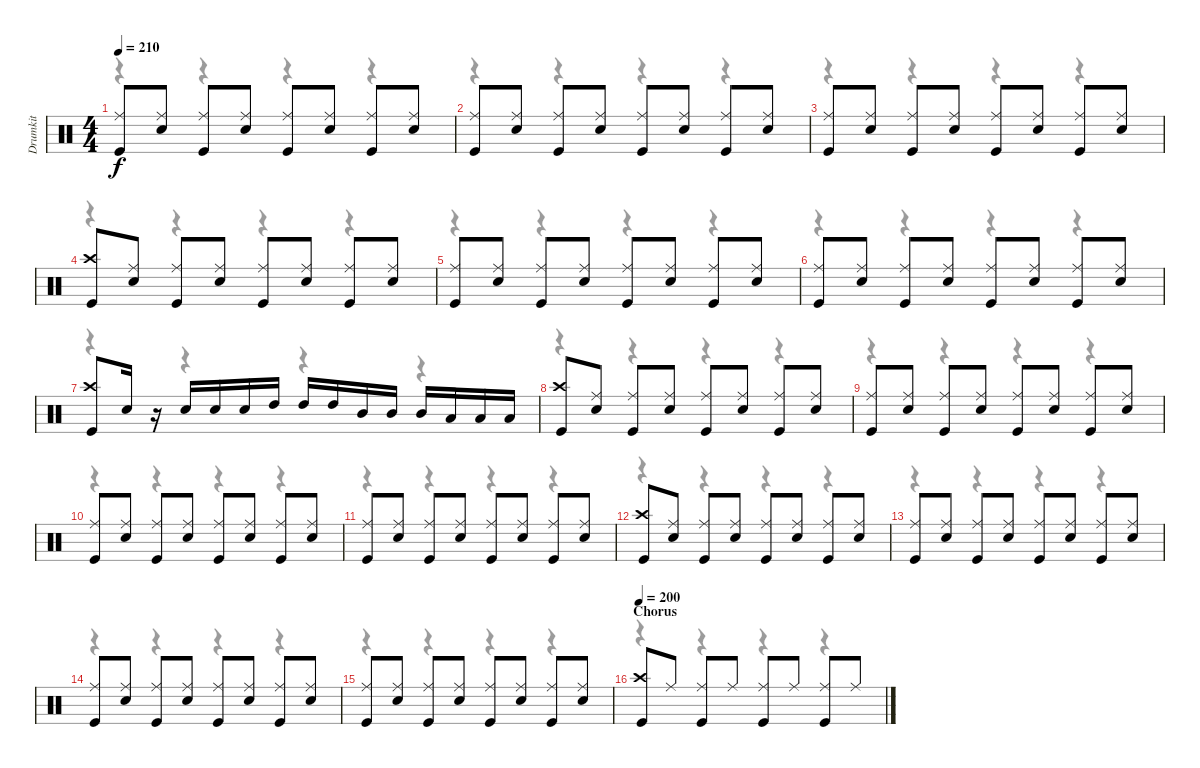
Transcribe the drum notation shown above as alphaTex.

\track ("Drumkit" "Drumkit") {instrument percussion}
\staff {score}
\articulation defaults
\voice
\ts (4 4)
\tempo 210
\clef neutral
\ks c
("Ride (middle)" "Kick (hit)").8{dy f} ("Ride (middle)" "Snare (hit) 2").8 ("Ride (middle)" "Kick (hit)").8 ("Ride (middle)" "Snare (hit) 2").8 ("Ride (middle)" "Kick (hit)").8 ("Ride (middle)" "Snare (hit) 2").8 ("Ride (middle)" "Kick (hit)").8 ("Ride (middle)" "Snare (hit) 2").8 |
("Ride (middle)" "Kick (hit)").8 ("Ride (middle)" "Snare (hit) 2").8 ("Ride (middle)" "Kick (hit)").8 ("Ride (middle)" "Snare (hit) 2").8 ("Ride (middle)" "Kick (hit)").8 ("Ride (middle)" "Snare (hit) 2").8 ("Ride (middle)" "Kick (hit)").8 ("Ride (middle)" "Snare (hit) 2").8 |
("Ride (middle)" "Kick (hit)").8 ("Ride (middle)" "Snare (hit) 2").8 ("Ride (middle)" "Kick (hit)").8 ("Ride (middle)" "Snare (hit) 2").8 ("Ride (middle)" "Kick (hit)").8 ("Ride (middle)" "Snare (hit) 2").8 ("Ride (middle)" "Kick (hit)").8 ("Ride (middle)" "Snare (hit) 2").8 |
("Crash high (hit)" "Kick (hit)").8 ("Ride (middle)" "Snare (hit) 2").8 ("Ride (middle)" "Kick (hit)").8 ("Ride (middle)" "Snare (hit) 2").8 ("Ride (middle)" "Kick (hit)").8 ("Ride (middle)" "Snare (hit) 2").8 ("Ride (middle)" "Kick (hit)").8 ("Ride (middle)" "Snare (hit) 2").8 |
("Ride (middle)" "Kick (hit)").8 ("Ride (middle)" "Snare (hit) 2").8 ("Ride (middle)" "Kick (hit)").8 ("Ride (middle)" "Snare (hit) 2").8 ("Ride (middle)" "Kick (hit)").8 ("Ride (middle)" "Snare (hit) 2").8 ("Ride (middle)" "Kick (hit)").8 ("Ride (middle)" "Snare (hit) 2").8 |
("Ride (middle)" "Kick (hit)").8 ("Ride (middle)" "Snare (hit) 2").8 ("Ride (middle)" "Kick (hit)").8 ("Ride (middle)" "Snare (hit) 2").8 ("Ride (middle)" "Kick (hit)").8 ("Ride (middle)" "Snare (hit) 2").8 ("Ride (middle)" "Kick (hit)").8 ("Ride (middle)" "Snare (hit) 2").8 |
("Crash high (hit)" "Kick (hit)").8 "Snare (hit) 2".16 r.16 "Snare (hit) 2".16 "Snare (hit) 2".16 "Snare (hit) 2".16 "High Tom (hit)".16 "High Tom (hit)".16 "High Tom (hit)".16 "Mid Tom (hit)".16 "Mid Tom (hit)".16 "Mid Tom (hit)".16 "Low Tom (hit)".16 "Low Tom (hit)".16 "Low Tom (hit)".16 |
("Crash high (hit)" "Kick (hit)").8 ("Ride (middle)" "Snare (hit) 2").8 ("Ride (middle)" "Kick (hit)").8 ("Ride (middle)" "Snare (hit) 2").8 ("Ride (middle)" "Kick (hit)").8 ("Ride (middle)" "Snare (hit) 2").8 ("Ride (middle)" "Kick (hit)").8 ("Ride (middle)" "Snare (hit) 2").8 |
("Ride (middle)" "Kick (hit)").8 ("Ride (middle)" "Snare (hit) 2").8 ("Ride (middle)" "Kick (hit)").8 ("Ride (middle)" "Snare (hit) 2").8 ("Ride (middle)" "Kick (hit)").8 ("Ride (middle)" "Snare (hit) 2").8 ("Ride (middle)" "Kick (hit)").8 ("Ride (middle)" "Snare (hit) 2").8 |
("Ride (middle)" "Kick (hit)").8 ("Ride (middle)" "Snare (hit) 2").8 ("Ride (middle)" "Kick (hit)").8 ("Ride (middle)" "Snare (hit) 2").8 ("Ride (middle)" "Kick (hit)").8 ("Ride (middle)" "Snare (hit) 2").8 ("Ride (middle)" "Kick (hit)").8 ("Ride (middle)" "Snare (hit) 2").8 |
("Ride (middle)" "Kick (hit)").8 ("Ride (middle)" "Snare (hit) 2").8 ("Ride (middle)" "Kick (hit)").8 ("Ride (middle)" "Snare (hit) 2").8 ("Ride (middle)" "Kick (hit)").8 ("Ride (middle)" "Snare (hit) 2").8 ("Ride (middle)" "Kick (hit)").8 ("Ride (middle)" "Snare (hit) 2").8 |
("Crash high (hit)" "Kick (hit)").8 ("Ride (middle)" "Snare (hit) 2").8 ("Ride (middle)" "Kick (hit)").8 ("Ride (middle)" "Snare (hit) 2").8 ("Ride (middle)" "Kick (hit)").8 ("Ride (middle)" "Snare (hit) 2").8 ("Ride (middle)" "Kick (hit)").8 ("Ride (middle)" "Snare (hit) 2").8 |
("Ride (middle)" "Kick (hit)").8 ("Ride (middle)" "Snare (hit) 2").8 ("Ride (middle)" "Kick (hit)").8 ("Ride (middle)" "Snare (hit) 2").8 ("Ride (middle)" "Kick (hit)").8 ("Ride (middle)" "Snare (hit) 2").8 ("Ride (middle)" "Kick (hit)").8 ("Ride (middle)" "Snare (hit) 2").8 |
("Ride (middle)" "Kick (hit)").8 ("Ride (middle)" "Snare (hit) 2").8 ("Ride (middle)" "Kick (hit)").8 ("Ride (middle)" "Snare (hit) 2").8 ("Ride (middle)" "Kick (hit)").8 ("Ride (middle)" "Snare (hit) 2").8 ("Ride (middle)" "Kick (hit)").8 ("Ride (middle)" "Snare (hit) 2").8 |
("Ride (middle)" "Kick (hit)").8 ("Ride (middle)" "Snare (hit) 2").8 ("Ride (middle)" "Kick (hit)").8 ("Ride (middle)" "Snare (hit) 2").8 ("Ride (middle)" "Kick (hit)").8 ("Ride (middle)" "Snare (hit) 2").8 ("Ride (middle)" "Kick (hit)").8 ("Ride (middle)" "Snare (hit) 2").8 |
\section ("" "Chorus")
\tempo 200
("Crash high (hit)" "Kick (hit)").8 "Ride (middle)".8 ("Ride (middle)" "Kick (hit)").8 "Ride (middle)".8 ("Ride (middle)" "Kick (hit)").8 "Ride (middle)".8 ("Ride (middle)" "Kick (hit)").8 "Ride (middle)".8
\voice
\clef neutral
\ottava regular
\simile none
\ks c
r.4{dy f} r.4 r.4 r.4 |
r.4 r.4 r.4 r.4 |
r.4 r.4 r.4 r.4 |
r.4 r.4 r.4 r.4 |
r.4 r.4 r.4 r.4 |
r.4 r.4 r.4 r.4 |
r.4 r.4 r.4 r.4 |
r.4 r.4 r.4 r.4 |
r.4 r.4 r.4 r.4 |
r.4 r.4 r.4 r.4 |
r.4 r.4 r.4 r.4 |
r.4 r.4 r.4 r.4 |
r.4 r.4 r.4 r.4 |
r.4 r.4 r.4 r.4 |
r.4 r.4 r.4 r.4 |
r.4 r.4 r.4 r.4
